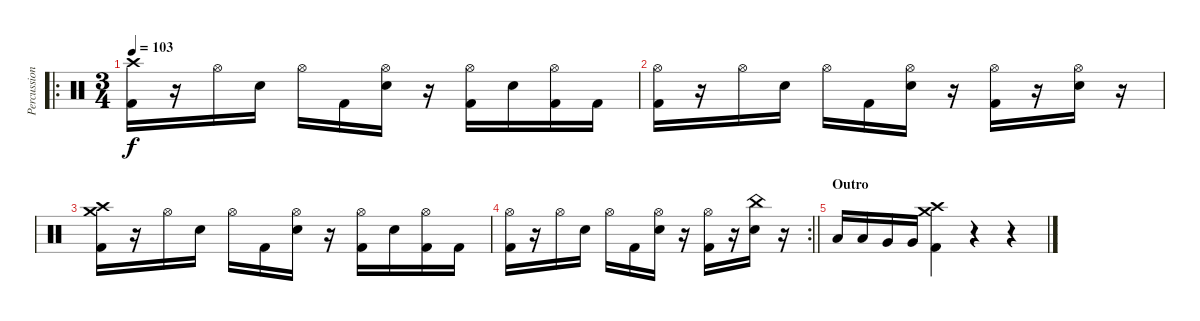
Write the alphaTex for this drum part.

\track ("Percussion" "Percussion") {instrument percussion}
\staff {score}
\articulation defaults
\ro
\ts (3 4)
\tempo 103
\clef neutral
\ks c
("Crash high (hit)" "Kick (hit) 2").16{dy f} r.16 "Hi-Hat (open)".16 "Electric Snare (hit)".16 "Hi-Hat (open)".16 "Kick (hit) 2".16 ("Hi-Hat (open)" "Electric Snare (hit)").16 r.16 ("Hi-Hat (open)" "Kick (hit) 2").16 "Electric Snare (hit)".16 ("Hi-Hat (open)" "Kick (hit) 2").16 "Kick (hit) 2".16 |
("Hi-Hat (open)" "Kick (hit) 2").16 r.16 "Hi-Hat (open)".16 "Electric Snare (hit)".16 "Hi-Hat (open)".16 "Kick (hit) 2".16 ("Hi-Hat (open)" "Electric Snare (hit)").16 r.16 ("Hi-Hat (open)" "Kick (hit) 2").16 r.16 ("Hi-Hat (open)" "Electric Snare (hit)").16 r.16 |
("Crash high (hit)" "Crash medium (hit)" "Kick (hit) 2").16 r.16 "Hi-Hat (open)".16 "Electric Snare (hit)".16 "Hi-Hat (open)".16 "Kick (hit) 2".16 ("Hi-Hat (open)" "Electric Snare (hit)").16 r.16 ("Hi-Hat (open)" "Kick (hit) 2").16 "Electric Snare (hit)".16 ("Hi-Hat (open)" "Kick (hit) 2").16 "Kick (hit) 2".16 |
\rc 2
\barLineRight lightlight
("Hi-Hat (open)" "Kick (hit) 2").16 r.16 "Hi-Hat (open)".16 "Electric Snare (hit)".16 "Hi-Hat (open)".16 "Kick (hit) 2".16 ("Hi-Hat (open)" "Electric Snare (hit)").16 r.16 ("Hi-Hat (open)" "Kick (hit) 2").16 r.16 ("China (hit)" "Electric Snare (hit)").16 r.16 |
\section ("" "Outro ")
"Low Tom (hit)".16 "Low Tom (hit)".16 "Very Low Tom (hit)".16 "Very Low Tom (hit)".16 ("Crash high (hit)" "Crash medium (hit)" "Kick (hit) 2").4 r.4 r.4
